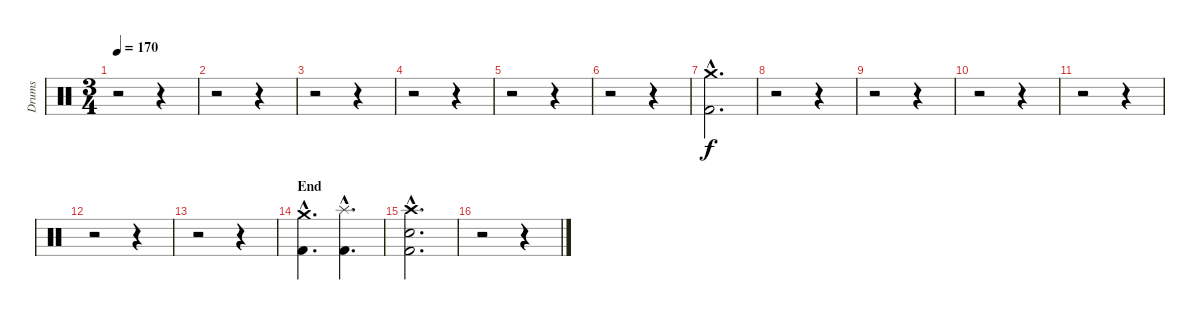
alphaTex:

\track ("Drums" "Drums") {instrument percussion}
\staff {score}
\articulation defaults
\ts (3 4)
\tempo 170
\clef neutral
\ks c
r.2{dy f} r.4 |
r.2 r.4 |
r.2 r.4 |
r.2 r.4 |
r.2 r.4 |
r.2 r.4 |
("Kick (hit) 2"{hac} "Crash medium (hit)"{hac}).2{d} |
r.2 r.4 |
r.2 r.4 |
r.2 r.4 |
r.2 r.4 |
r.2 r.4 |
r.2 r.4 |
\section ("" "End")
("Kick (hit) 2"{hac} "Crash medium (hit)"{hac}).4{d} ("Kick (hit) 2"{hac} "Splash (hit)"{hac}).4{d} |
("Kick (hit) 2"{hac} "Snare (hit) 2"{hac} "Crash high (hit)"{hac}).2{d} |
r.2 r.4
